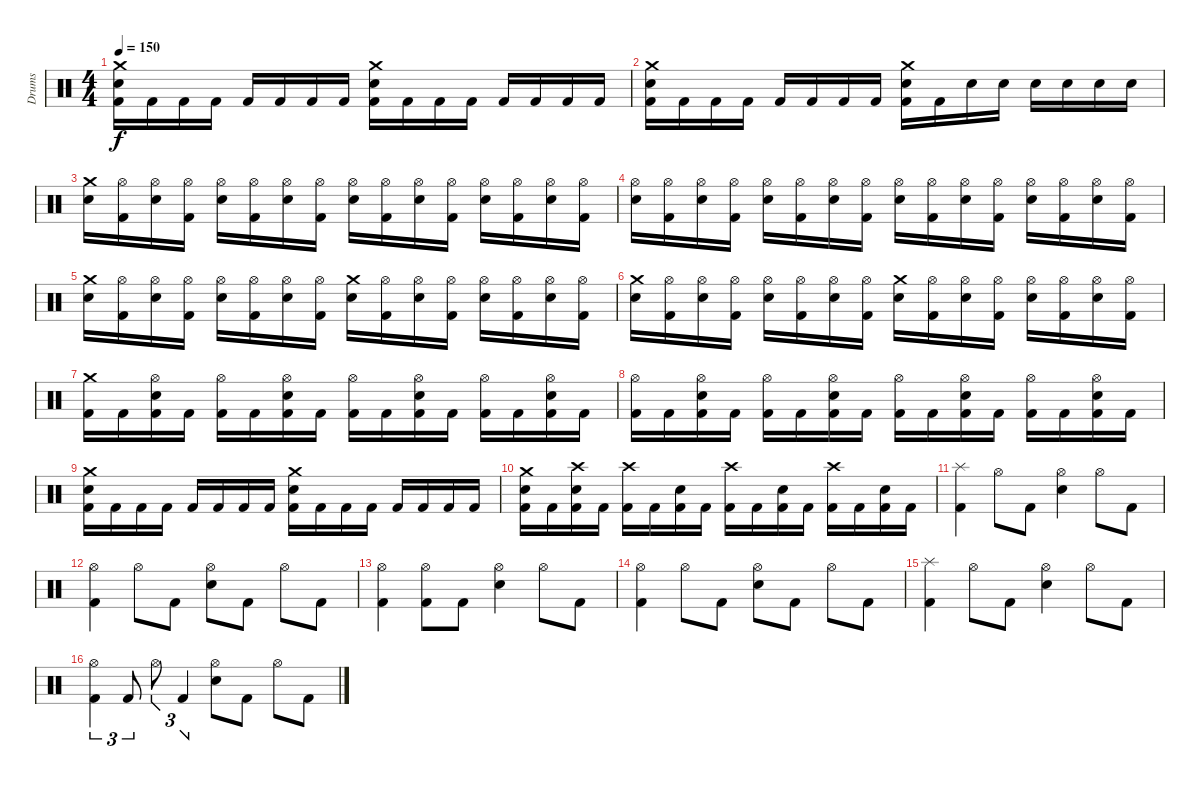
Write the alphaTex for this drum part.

\track ("Drums" "Drums") {instrument percussion}
\staff {score}
\articulation defaults
\ts (4 4)
\tempo 150
\clef neutral
\ks c
("Crash medium (hit)" "Electric Snare (hit)" "Kick (hit) 2").16{dy f} "Kick (hit) 2".16 "Kick (hit) 2".16 "Kick (hit) 2".16 "Kick (hit) 2".16 "Kick (hit) 2".16 "Kick (hit) 2".16 "Kick (hit) 2".16 ("Crash medium (hit)" "Electric Snare (hit)" "Kick (hit) 2").16 "Kick (hit) 2".16 "Kick (hit) 2".16 "Kick (hit) 2".16 "Kick (hit) 2".16 "Kick (hit) 2".16 "Kick (hit) 2".16 "Kick (hit) 2".16 |
("Crash medium (hit)" "Electric Snare (hit)" "Kick (hit) 2").16 "Kick (hit) 2".16 "Kick (hit) 2".16 "Kick (hit) 2".16 "Kick (hit) 2".16 "Kick (hit) 2".16 "Kick (hit) 2".16 "Kick (hit) 2".16 ("Crash medium (hit)" "Electric Snare (hit)" "Kick (hit) 2").16 "Kick (hit) 2".16 "Electric Snare (hit)".16 "Electric Snare (hit)".16 "Electric Snare (hit)".16 "Electric Snare (hit)".16 "Electric Snare (hit)".16 "Electric Snare (hit)".16 |
("Crash medium (hit)" "Electric Snare (hit)").16 ("Hi-Hat (open)" "Kick (hit) 2").16 ("Hi-Hat (open)" "Electric Snare (hit)").16 ("Hi-Hat (open)" "Kick (hit) 2").16 ("Hi-Hat (open)" "Electric Snare (hit)").16 ("Hi-Hat (open)" "Kick (hit) 2").16 ("Hi-Hat (open)" "Electric Snare (hit)").16 ("Hi-Hat (open)" "Kick (hit) 2").16 ("Hi-Hat (open)" "Electric Snare (hit)").16 ("Hi-Hat (open)" "Kick (hit) 2").16 ("Hi-Hat (open)" "Electric Snare (hit)").16 ("Hi-Hat (open)" "Kick (hit) 2").16 ("Hi-Hat (open)" "Electric Snare (hit)").16 ("Hi-Hat (open)" "Kick (hit) 2").16 ("Hi-Hat (open)" "Electric Snare (hit)").16 ("Hi-Hat (open)" "Kick (hit) 2").16 |
("Hi-Hat (open)" "Electric Snare (hit)").16 ("Hi-Hat (open)" "Kick (hit) 2").16 ("Hi-Hat (open)" "Electric Snare (hit)").16 ("Hi-Hat (open)" "Kick (hit) 2").16 ("Hi-Hat (open)" "Electric Snare (hit)").16 ("Hi-Hat (open)" "Kick (hit) 2").16 ("Hi-Hat (open)" "Electric Snare (hit)").16 ("Hi-Hat (open)" "Kick (hit) 2").16 ("Hi-Hat (open)" "Electric Snare (hit)").16 ("Hi-Hat (open)" "Kick (hit) 2").16 ("Hi-Hat (open)" "Electric Snare (hit)").16 ("Hi-Hat (open)" "Kick (hit) 2").16 ("Hi-Hat (open)" "Electric Snare (hit)").16 ("Hi-Hat (open)" "Kick (hit) 2").16 ("Hi-Hat (open)" "Electric Snare (hit)").16 ("Hi-Hat (open)" "Kick (hit) 2").16 |
("Crash medium (hit)" "Electric Snare (hit)").16 ("Hi-Hat (open)" "Kick (hit) 2").16 ("Hi-Hat (open)" "Electric Snare (hit)").16 ("Hi-Hat (open)" "Kick (hit) 2").16 ("Hi-Hat (open)" "Electric Snare (hit)").16 ("Hi-Hat (open)" "Kick (hit) 2").16 ("Hi-Hat (open)" "Electric Snare (hit)").16 ("Hi-Hat (open)" "Kick (hit) 2").16 ("Crash medium (hit)" "Electric Snare (hit)").16 ("Hi-Hat (open)" "Kick (hit) 2").16 ("Hi-Hat (open)" "Electric Snare (hit)").16 ("Hi-Hat (open)" "Kick (hit) 2").16 ("Hi-Hat (open)" "Electric Snare (hit)").16 ("Hi-Hat (open)" "Kick (hit) 2").16 ("Hi-Hat (open)" "Electric Snare (hit)").16 ("Hi-Hat (open)" "Kick (hit) 2").16 |
("Crash medium (hit)" "Electric Snare (hit)").16 ("Hi-Hat (open)" "Kick (hit) 2").16 ("Hi-Hat (open)" "Electric Snare (hit)").16 ("Hi-Hat (open)" "Kick (hit) 2").16 ("Hi-Hat (open)" "Electric Snare (hit)").16 ("Hi-Hat (open)" "Kick (hit) 2").16 ("Hi-Hat (open)" "Electric Snare (hit)").16 ("Hi-Hat (open)" "Kick (hit) 2").16 ("Crash medium (hit)" "Electric Snare (hit)").16 ("Hi-Hat (open)" "Kick (hit) 2").16 ("Hi-Hat (open)" "Electric Snare (hit)").16 ("Hi-Hat (open)" "Kick (hit) 2").16 ("Hi-Hat (open)" "Electric Snare (hit)").16 ("Hi-Hat (open)" "Kick (hit) 2").16 ("Hi-Hat (open)" "Electric Snare (hit)").16 ("Hi-Hat (open)" "Kick (hit) 2").16 |
("Crash medium (hit)" "Kick (hit) 2").16 "Kick (hit) 2".16 ("Hi-Hat (open)" "Electric Snare (hit)" "Kick (hit) 2").16 "Kick (hit) 2".16 ("Hi-Hat (open)" "Kick (hit) 2").16 "Kick (hit) 2".16 ("Hi-Hat (open)" "Electric Snare (hit)" "Kick (hit) 2").16 "Kick (hit) 2".16 ("Hi-Hat (open)" "Kick (hit) 2").16 "Kick (hit) 2".16 ("Hi-Hat (open)" "Electric Snare (hit)" "Kick (hit) 2").16 "Kick (hit) 2".16 ("Hi-Hat (open)" "Kick (hit) 2").16 "Kick (hit) 2".16 ("Hi-Hat (open)" "Electric Snare (hit)" "Kick (hit) 2").16 "Kick (hit) 2".16 |
("Hi-Hat (open)" "Kick (hit) 2").16 "Kick (hit) 2".16 ("Hi-Hat (open)" "Electric Snare (hit)" "Kick (hit) 2").16 "Kick (hit) 2".16 ("Hi-Hat (open)" "Kick (hit) 2").16 "Kick (hit) 2".16 ("Hi-Hat (open)" "Electric Snare (hit)" "Kick (hit) 2").16 "Kick (hit) 2".16 ("Hi-Hat (open)" "Kick (hit) 2").16 "Kick (hit) 2".16 ("Hi-Hat (open)" "Electric Snare (hit)" "Kick (hit) 2").16 "Kick (hit) 2".16 ("Hi-Hat (open)" "Kick (hit) 2").16 "Kick (hit) 2".16 ("Hi-Hat (open)" "Electric Snare (hit)" "Kick (hit) 2").16 "Kick (hit) 2".16 |
("Crash medium (hit)" "Electric Snare (hit)" "Kick (hit) 2").16 "Kick (hit) 2".16 "Kick (hit) 2".16 "Kick (hit) 2".16 "Kick (hit) 2".16 "Kick (hit) 2".16 "Kick (hit) 2".16 "Kick (hit) 2".16 ("Crash medium (hit)" "Electric Snare (hit)" "Kick (hit) 2").16 "Kick (hit) 2".16 "Kick (hit) 2".16 "Kick (hit) 2".16 "Kick (hit) 2".16 "Kick (hit) 2".16 "Kick (hit) 2".16 "Kick (hit) 2".16 |
("Crash medium (hit)" "Electric Snare (hit)" "Kick (hit) 2").16 "Kick (hit) 2".16 ("Crash high (hit)" "Electric Snare (hit)" "Kick (hit) 2").16 "Kick (hit) 2".16 ("Crash high (hit)" "Kick (hit) 2").16 "Kick (hit) 2".16 ("Electric Snare (hit)" "Kick (hit) 2").16 "Kick (hit) 2".16 ("Crash high (hit)" "Kick (hit) 2").16 "Kick (hit) 2".16 ("Electric Snare (hit)" "Kick (hit) 2").16 "Kick (hit) 2".16 ("Crash high (hit)" "Kick (hit) 2").16 "Kick (hit) 2".16 ("Electric Snare (hit)" "Kick (hit) 2").16 "Kick (hit) 2".16 |
("Splash (hit)" "Kick (hit) 2").4 "Hi-Hat (open)".8 "Kick (hit) 2".8 ("Hi-Hat (open)" "Electric Snare (hit)").4 "Hi-Hat (open)".8 "Kick (hit) 2".8 |
("Hi-Hat (open)" "Kick (hit) 2").4 "Hi-Hat (open)".8 "Kick (hit) 2".8 ("Hi-Hat (open)" "Electric Snare (hit)").8 "Kick (hit) 2".8 "Hi-Hat (open)".8 "Kick (hit) 2".8 |
("Hi-Hat (open)" "Kick (hit) 2").4 ("Hi-Hat (open)" "Kick (hit) 2").8 "Kick (hit) 2".8 ("Hi-Hat (open)" "Electric Snare (hit)").4 "Hi-Hat (open)".8 "Kick (hit) 2".8 |
("Hi-Hat (open)" "Kick (hit) 2").4 "Hi-Hat (open)".8 "Kick (hit) 2".8 ("Hi-Hat (open)" "Electric Snare (hit)").8 "Kick (hit) 2".8 "Hi-Hat (open)".8 "Kick (hit) 2".8 |
("Splash (hit)" "Kick (hit) 2").4 "Hi-Hat (open)".8 "Kick (hit) 2".8 ("Hi-Hat (open)" "Electric Snare (hit)").4 "Hi-Hat (open)".8 "Kick (hit) 2".8 |
("Hi-Hat (open)" "Kick (hit) 2").4{tu (3 2)} "Kick (hit) 2".8{tu (3 2)} "Hi-Hat (open)".8{tu (3 2)} "Kick (hit) 2".4{tu (3 2)} ("Hi-Hat (open)" "Electric Snare (hit)").8 "Kick (hit) 2".8 "Hi-Hat (open)".8 "Kick (hit) 2".8
